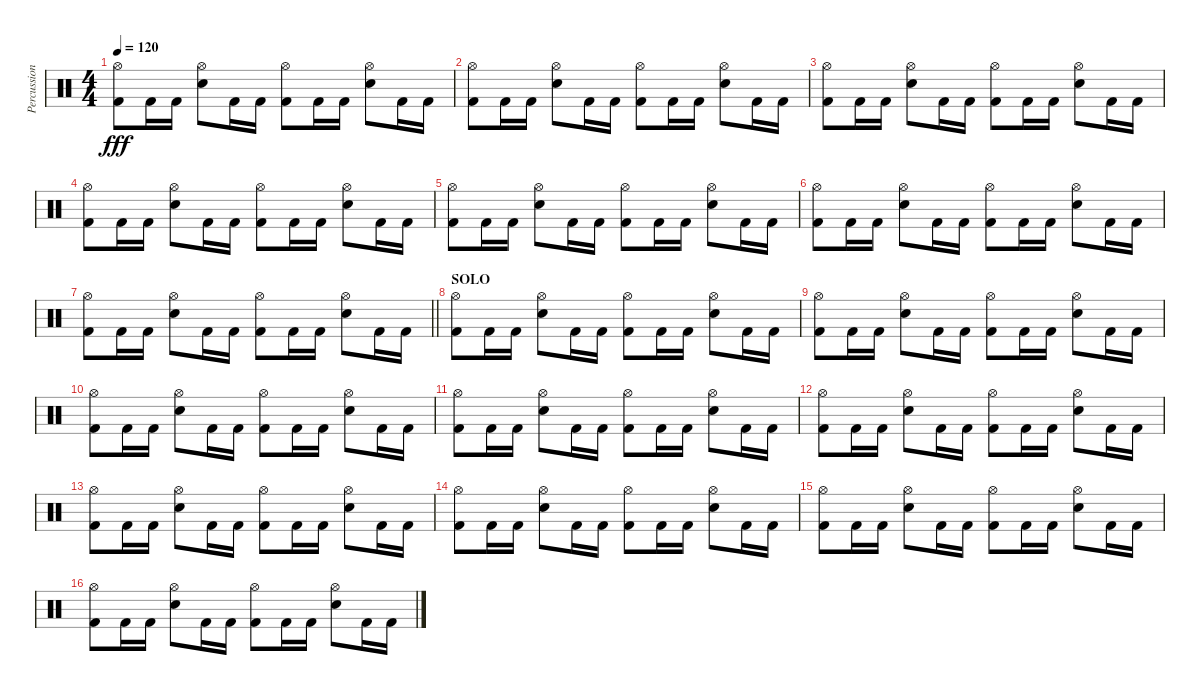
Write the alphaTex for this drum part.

\track ("Percussion" "Percussion") {instrument percussion}
\staff {score}
\articulation defaults
\ts (4 4)
\tempo 120
\clef neutral
\ks c
("Hi-Hat (open)" "Kick (hit) 2").8{dy fff} "Kick (hit) 2".16 "Kick (hit) 2".16 ("Hi-Hat (open)" "Electric Snare (hit)").8 "Kick (hit) 2".16 "Kick (hit) 2".16 ("Hi-Hat (open)" "Kick (hit) 2").8 "Kick (hit) 2".16 "Kick (hit) 2".16 ("Hi-Hat (open)" "Electric Snare (hit)").8 "Kick (hit) 2".16 "Kick (hit) 2".16 |
("Hi-Hat (open)" "Kick (hit) 2").8 "Kick (hit) 2".16 "Kick (hit) 2".16 ("Hi-Hat (open)" "Electric Snare (hit)").8 "Kick (hit) 2".16 "Kick (hit) 2".16 ("Hi-Hat (open)" "Kick (hit) 2").8 "Kick (hit) 2".16 "Kick (hit) 2".16 ("Hi-Hat (open)" "Electric Snare (hit)").8 "Kick (hit) 2".16 "Kick (hit) 2".16 |
("Hi-Hat (open)" "Kick (hit) 2").8 "Kick (hit) 2".16 "Kick (hit) 2".16 ("Hi-Hat (open)" "Electric Snare (hit)").8 "Kick (hit) 2".16 "Kick (hit) 2".16 ("Hi-Hat (open)" "Kick (hit) 2").8 "Kick (hit) 2".16 "Kick (hit) 2".16 ("Hi-Hat (open)" "Electric Snare (hit)").8 "Kick (hit) 2".16 "Kick (hit) 2".16 |
("Hi-Hat (open)" "Kick (hit) 2").8 "Kick (hit) 2".16 "Kick (hit) 2".16 ("Hi-Hat (open)" "Electric Snare (hit)").8 "Kick (hit) 2".16 "Kick (hit) 2".16 ("Hi-Hat (open)" "Kick (hit) 2").8 "Kick (hit) 2".16 "Kick (hit) 2".16 ("Hi-Hat (open)" "Electric Snare (hit)").8 "Kick (hit) 2".16 "Kick (hit) 2".16 |
("Hi-Hat (open)" "Kick (hit) 2").8 "Kick (hit) 2".16 "Kick (hit) 2".16 ("Hi-Hat (open)" "Electric Snare (hit)").8 "Kick (hit) 2".16 "Kick (hit) 2".16 ("Hi-Hat (open)" "Kick (hit) 2").8 "Kick (hit) 2".16 "Kick (hit) 2".16 ("Hi-Hat (open)" "Electric Snare (hit)").8 "Kick (hit) 2".16 "Kick (hit) 2".16 |
("Hi-Hat (open)" "Kick (hit) 2").8 "Kick (hit) 2".16 "Kick (hit) 2".16 ("Hi-Hat (open)" "Electric Snare (hit)").8 "Kick (hit) 2".16 "Kick (hit) 2".16 ("Hi-Hat (open)" "Kick (hit) 2").8 "Kick (hit) 2".16 "Kick (hit) 2".16 ("Hi-Hat (open)" "Electric Snare (hit)").8 "Kick (hit) 2".16 "Kick (hit) 2".16 |
\barLineRight lightlight
("Hi-Hat (open)" "Kick (hit) 2").8 "Kick (hit) 2".16 "Kick (hit) 2".16 ("Hi-Hat (open)" "Electric Snare (hit)").8 "Kick (hit) 2".16 "Kick (hit) 2".16 ("Hi-Hat (open)" "Kick (hit) 2").8 "Kick (hit) 2".16 "Kick (hit) 2".16 ("Hi-Hat (open)" "Electric Snare (hit)").8 "Kick (hit) 2".16 "Kick (hit) 2".16 |
\section ("" "SOLO")
("Hi-Hat (open)" "Kick (hit) 2").8 "Kick (hit) 2".16 "Kick (hit) 2".16 ("Hi-Hat (open)" "Electric Snare (hit)").8 "Kick (hit) 2".16 "Kick (hit) 2".16 ("Hi-Hat (open)" "Kick (hit) 2").8 "Kick (hit) 2".16 "Kick (hit) 2".16 ("Hi-Hat (open)" "Electric Snare (hit)").8 "Kick (hit) 2".16 "Kick (hit) 2".16 |
("Hi-Hat (open)" "Kick (hit) 2").8 "Kick (hit) 2".16 "Kick (hit) 2".16 ("Hi-Hat (open)" "Electric Snare (hit)").8 "Kick (hit) 2".16 "Kick (hit) 2".16 ("Hi-Hat (open)" "Kick (hit) 2").8 "Kick (hit) 2".16 "Kick (hit) 2".16 ("Hi-Hat (open)" "Electric Snare (hit)").8 "Kick (hit) 2".16 "Kick (hit) 2".16 |
("Hi-Hat (open)" "Kick (hit) 2").8 "Kick (hit) 2".16 "Kick (hit) 2".16 ("Hi-Hat (open)" "Electric Snare (hit)").8 "Kick (hit) 2".16 "Kick (hit) 2".16 ("Hi-Hat (open)" "Kick (hit) 2").8 "Kick (hit) 2".16 "Kick (hit) 2".16 ("Hi-Hat (open)" "Electric Snare (hit)").8 "Kick (hit) 2".16 "Kick (hit) 2".16 |
("Hi-Hat (open)" "Kick (hit) 2").8 "Kick (hit) 2".16 "Kick (hit) 2".16 ("Hi-Hat (open)" "Electric Snare (hit)").8 "Kick (hit) 2".16 "Kick (hit) 2".16 ("Hi-Hat (open)" "Kick (hit) 2").8 "Kick (hit) 2".16 "Kick (hit) 2".16 ("Hi-Hat (open)" "Electric Snare (hit)").8 "Kick (hit) 2".16 "Kick (hit) 2".16 |
("Hi-Hat (open)" "Kick (hit) 2").8 "Kick (hit) 2".16 "Kick (hit) 2".16 ("Hi-Hat (open)" "Electric Snare (hit)").8 "Kick (hit) 2".16 "Kick (hit) 2".16 ("Hi-Hat (open)" "Kick (hit) 2").8 "Kick (hit) 2".16 "Kick (hit) 2".16 ("Hi-Hat (open)" "Electric Snare (hit)").8 "Kick (hit) 2".16 "Kick (hit) 2".16 |
("Hi-Hat (open)" "Kick (hit) 2").8 "Kick (hit) 2".16 "Kick (hit) 2".16 ("Hi-Hat (open)" "Electric Snare (hit)").8 "Kick (hit) 2".16 "Kick (hit) 2".16 ("Hi-Hat (open)" "Kick (hit) 2").8 "Kick (hit) 2".16 "Kick (hit) 2".16 ("Hi-Hat (open)" "Electric Snare (hit)").8 "Kick (hit) 2".16 "Kick (hit) 2".16 |
("Hi-Hat (open)" "Kick (hit) 2").8 "Kick (hit) 2".16 "Kick (hit) 2".16 ("Hi-Hat (open)" "Electric Snare (hit)").8 "Kick (hit) 2".16 "Kick (hit) 2".16 ("Hi-Hat (open)" "Kick (hit) 2").8 "Kick (hit) 2".16 "Kick (hit) 2".16 ("Hi-Hat (open)" "Electric Snare (hit)").8 "Kick (hit) 2".16 "Kick (hit) 2".16 |
("Hi-Hat (open)" "Kick (hit) 2").8 "Kick (hit) 2".16 "Kick (hit) 2".16 ("Hi-Hat (open)" "Electric Snare (hit)").8 "Kick (hit) 2".16 "Kick (hit) 2".16 ("Hi-Hat (open)" "Kick (hit) 2").8 "Kick (hit) 2".16 "Kick (hit) 2".16 ("Hi-Hat (open)" "Electric Snare (hit)").8 "Kick (hit) 2".16 "Kick (hit) 2".16 |
("Hi-Hat (open)" "Kick (hit) 2").8 "Kick (hit) 2".16 "Kick (hit) 2".16 ("Hi-Hat (open)" "Electric Snare (hit)").8 "Kick (hit) 2".16 "Kick (hit) 2".16 ("Hi-Hat (open)" "Kick (hit) 2").8 "Kick (hit) 2".16 "Kick (hit) 2".16 ("Hi-Hat (open)" "Electric Snare (hit)").8 "Kick (hit) 2".16 "Kick (hit) 2".16
